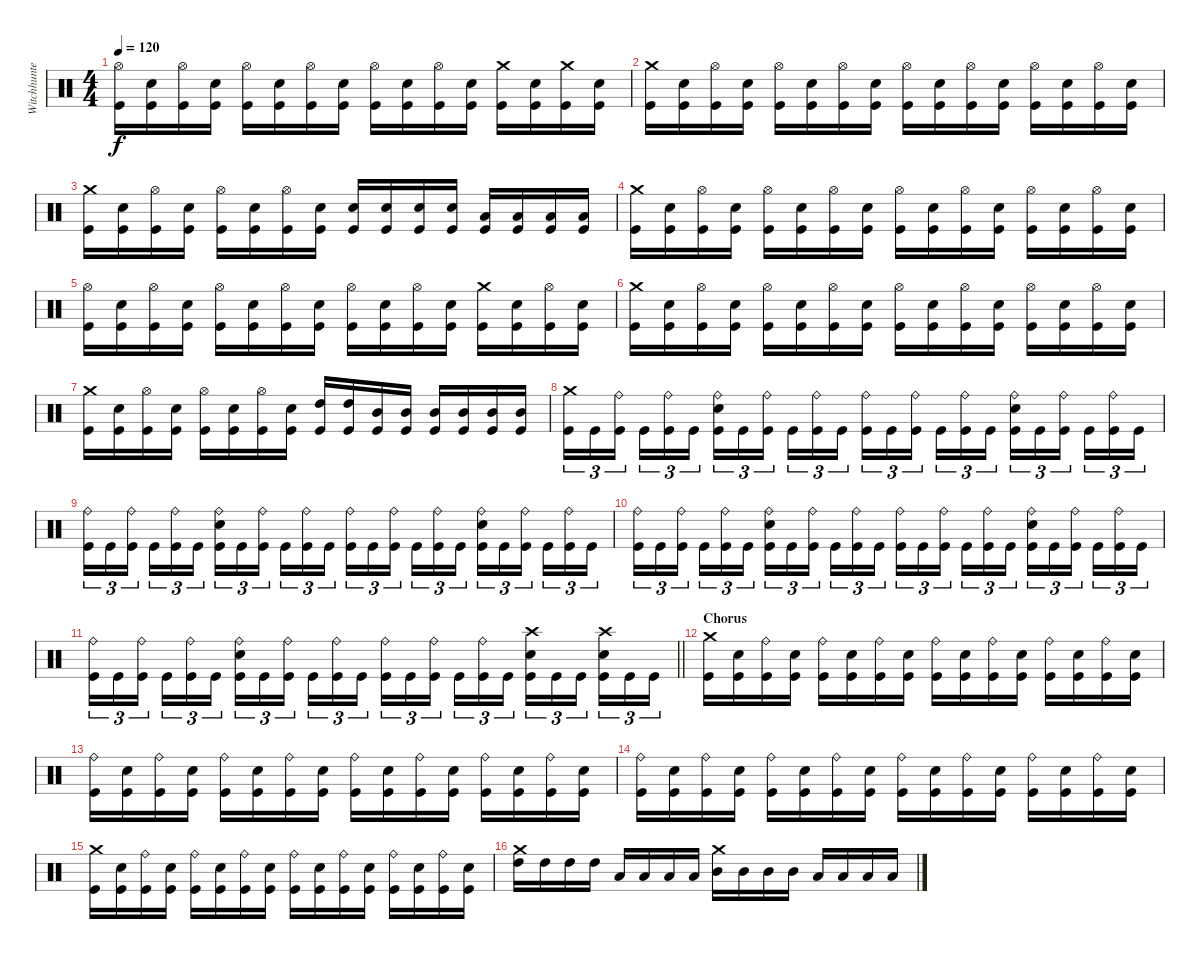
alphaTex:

\track ("Witchhunter" "Witchhunte") {instrument percussion}
\staff {score}
\articulation defaults
\ts (4 4)
\tempo 120
\clef neutral
\ks c
("Hi-Hat (open)" "Kick (hit)").16{dy f} ("Snare (hit) 2" "Kick (hit)").16 ("Hi-Hat (open)" "Kick (hit)").16 ("Snare (hit) 2" "Kick (hit)").16 ("Hi-Hat (open)" "Kick (hit)").16 ("Snare (hit) 2" "Kick (hit)").16 ("Hi-Hat (open)" "Kick (hit)").16 ("Snare (hit) 2" "Kick (hit)").16 ("Hi-Hat (open)" "Kick (hit)").16 ("Snare (hit) 2" "Kick (hit)").16 ("Hi-Hat (open)" "Kick (hit)").16 ("Snare (hit) 2" "Kick (hit)").16 ("Crash medium (hit)" "Kick (hit)").16 ("Snare (hit) 2" "Kick (hit)").16 ("Crash medium (hit)" "Kick (hit)").16 ("Snare (hit) 2" "Kick (hit)").16 |
("Crash medium (hit)" "Kick (hit)").16 ("Snare (hit) 2" "Kick (hit)").16 ("Hi-Hat (open)" "Kick (hit)").16 ("Snare (hit) 2" "Kick (hit)").16 ("Hi-Hat (open)" "Kick (hit)").16 ("Snare (hit) 2" "Kick (hit)").16 ("Hi-Hat (open)" "Kick (hit)").16 ("Snare (hit) 2" "Kick (hit)").16 ("Hi-Hat (open)" "Kick (hit)").16 ("Snare (hit) 2" "Kick (hit)").16 ("Hi-Hat (open)" "Kick (hit)").16 ("Snare (hit) 2" "Kick (hit)").16 ("Hi-Hat (open)" "Kick (hit)").16 ("Snare (hit) 2" "Kick (hit)").16 ("Hi-Hat (open)" "Kick (hit)").16 ("Snare (hit) 2" "Kick (hit)").16 |
("Crash medium (hit)" "Kick (hit)").16 ("Snare (hit) 2" "Kick (hit)").16 ("Hi-Hat (open)" "Kick (hit)").16 ("Snare (hit) 2" "Kick (hit)").16 ("Hi-Hat (open)" "Kick (hit)").16 ("Snare (hit) 2" "Kick (hit)").16 ("Hi-Hat (open)" "Kick (hit)").16 ("Snare (hit) 2" "Kick (hit)").16 ("Snare (hit) 2" "Kick (hit)").16 ("Snare (hit) 2" "Kick (hit)").16 ("Snare (hit) 2" "Kick (hit)").16 ("Snare (hit) 2" "Kick (hit)").16 ("Low Tom (hit)" "Kick (hit)").16 ("Low Tom (hit)" "Kick (hit)").16 ("Low Tom (hit)" "Kick (hit)").16 ("Low Tom (hit)" "Kick (hit)").16 |
("Crash medium (hit)" "Kick (hit)").16 ("Snare (hit) 2" "Kick (hit)").16 ("Hi-Hat (open)" "Kick (hit)").16 ("Snare (hit) 2" "Kick (hit)").16 ("Hi-Hat (open)" "Kick (hit)").16 ("Snare (hit) 2" "Kick (hit)").16 ("Hi-Hat (open)" "Kick (hit)").16 ("Snare (hit) 2" "Kick (hit)").16 ("Hi-Hat (open)" "Kick (hit)").16 ("Snare (hit) 2" "Kick (hit)").16 ("Hi-Hat (open)" "Kick (hit)").16 ("Snare (hit) 2" "Kick (hit)").16 ("Hi-Hat (open)" "Kick (hit)").16 ("Snare (hit) 2" "Kick (hit)").16 ("Hi-Hat (open)" "Kick (hit)").16 ("Snare (hit) 2" "Kick (hit)").16 |
("Hi-Hat (open)" "Kick (hit)").16 ("Snare (hit) 2" "Kick (hit)").16 ("Hi-Hat (open)" "Kick (hit)").16 ("Snare (hit) 2" "Kick (hit)").16 ("Hi-Hat (open)" "Kick (hit)").16 ("Snare (hit) 2" "Kick (hit)").16 ("Hi-Hat (open)" "Kick (hit)").16 ("Snare (hit) 2" "Kick (hit)").16 ("Hi-Hat (open)" "Kick (hit)").16 ("Snare (hit) 2" "Kick (hit)").16 ("Hi-Hat (open)" "Kick (hit)").16 ("Snare (hit) 2" "Kick (hit)").16 ("Crash medium (hit)" "Kick (hit)").16 ("Snare (hit) 2" "Kick (hit)").16 ("Hi-Hat (open)" "Kick (hit)").16 ("Snare (hit) 2" "Kick (hit)").16 |
("Crash medium (hit)" "Kick (hit)").16 ("Snare (hit) 2" "Kick (hit)").16 ("Hi-Hat (open)" "Kick (hit)").16 ("Snare (hit) 2" "Kick (hit)").16 ("Hi-Hat (open)" "Kick (hit)").16 ("Snare (hit) 2" "Kick (hit)").16 ("Hi-Hat (open)" "Kick (hit)").16 ("Snare (hit) 2" "Kick (hit)").16 ("Hi-Hat (open)" "Kick (hit)").16 ("Snare (hit) 2" "Kick (hit)").16 ("Hi-Hat (open)" "Kick (hit)").16 ("Snare (hit) 2" "Kick (hit)").16 ("Hi-Hat (open)" "Kick (hit)").16 ("Snare (hit) 2" "Kick (hit)").16 ("Hi-Hat (open)" "Kick (hit)").16 ("Snare (hit) 2" "Kick (hit)").16 |
("Crash medium (hit)" "Kick (hit)").16 ("Snare (hit) 2" "Kick (hit)").16 ("Hi-Hat (open)" "Kick (hit)").16 ("Snare (hit) 2" "Kick (hit)").16 ("Hi-Hat (open)" "Kick (hit)").16 ("Snare (hit) 2" "Kick (hit)").16 ("Hi-Hat (open)" "Kick (hit)").16 ("Snare (hit) 2" "Kick (hit)").16 ("High Tom (hit)" "Kick (hit)").16 ("High Tom (hit)" "Kick (hit)").16 ("Mid Tom (hit)" "Kick (hit)").16 ("Mid Tom (hit)" "Kick (hit)").16 ("Mid Tom (hit)" "Kick (hit)").16 ("Mid Tom (hit)" "Kick (hit)").16 ("Mid Tom (hit)" "Kick (hit)").16 ("Mid Tom (hit)" "Kick (hit)").16 |
("Crash medium (hit)" "Kick (hit)").16{tu (3 2)} "Kick (hit)".16{tu (3 2)} ("Ride (bell)" "Kick (hit)").16{tu (3 2) beam splitsecondary} "Kick (hit)".16{tu (3 2)} ("Ride (bell)" "Kick (hit)").16{tu (3 2)} "Kick (hit)".16{tu (3 2)} ("Ride (bell)" "Snare (hit) 2" "Kick (hit)").16{tu (3 2)} "Kick (hit)".16{tu (3 2)} ("Ride (bell)" "Kick (hit)").16{tu (3 2) beam splitsecondary} "Kick (hit)".16{tu (3 2)} ("Ride (bell)" "Kick (hit)").16{tu (3 2)} "Kick (hit)".16{tu (3 2)} ("Ride (bell)" "Kick (hit)").16{tu (3 2)} "Kick (hit)".16{tu (3 2)} ("Ride (bell)" "Kick (hit)").16{tu (3 2) beam splitsecondary} "Kick (hit)".16{tu (3 2)} ("Ride (bell)" "Kick (hit)").16{tu (3 2)} "Kick (hit)".16{tu (3 2)} ("Ride (bell)" "Snare (hit) 2" "Kick (hit)").16{tu (3 2)} "Kick (hit)".16{tu (3 2)} ("Ride (bell)" "Kick (hit)").16{tu (3 2) beam splitsecondary} "Kick (hit)".16{tu (3 2)} ("Ride (bell)" "Kick (hit)").16{tu (3 2)} "Kick (hit)".16{tu (3 2)} |
("Ride (bell)" "Kick (hit)").16{tu (3 2)} "Kick (hit)".16{tu (3 2)} ("Ride (bell)" "Kick (hit)").16{tu (3 2) beam splitsecondary} "Kick (hit)".16{tu (3 2)} ("Ride (bell)" "Kick (hit)").16{tu (3 2)} "Kick (hit)".16{tu (3 2)} ("Ride (bell)" "Snare (hit) 2" "Kick (hit)").16{tu (3 2)} "Kick (hit)".16{tu (3 2)} ("Ride (bell)" "Kick (hit)").16{tu (3 2) beam splitsecondary} "Kick (hit)".16{tu (3 2)} ("Ride (bell)" "Kick (hit)").16{tu (3 2)} "Kick (hit)".16{tu (3 2)} ("Ride (bell)" "Kick (hit)").16{tu (3 2)} "Kick (hit)".16{tu (3 2)} ("Ride (bell)" "Kick (hit)").16{tu (3 2) beam splitsecondary} "Kick (hit)".16{tu (3 2)} ("Ride (bell)" "Kick (hit)").16{tu (3 2)} "Kick (hit)".16{tu (3 2)} ("Ride (bell)" "Snare (hit) 2" "Kick (hit)").16{tu (3 2)} "Kick (hit)".16{tu (3 2)} ("Ride (bell)" "Kick (hit)").16{tu (3 2) beam splitsecondary} "Kick (hit)".16{tu (3 2)} ("Ride (bell)" "Kick (hit)").16{tu (3 2)} "Kick (hit)".16{tu (3 2)} |
("Ride (bell)" "Kick (hit)").16{tu (3 2)} "Kick (hit)".16{tu (3 2)} ("Ride (bell)" "Kick (hit)").16{tu (3 2) beam splitsecondary} "Kick (hit)".16{tu (3 2)} ("Ride (bell)" "Kick (hit)").16{tu (3 2)} "Kick (hit)".16{tu (3 2)} ("Ride (bell)" "Snare (hit) 2" "Kick (hit)").16{tu (3 2)} "Kick (hit)".16{tu (3 2)} ("Ride (bell)" "Kick (hit)").16{tu (3 2) beam splitsecondary} "Kick (hit)".16{tu (3 2)} ("Ride (bell)" "Kick (hit)").16{tu (3 2)} "Kick (hit)".16{tu (3 2)} ("Ride (bell)" "Kick (hit)").16{tu (3 2)} "Kick (hit)".16{tu (3 2)} ("Ride (bell)" "Kick (hit)").16{tu (3 2) beam splitsecondary} "Kick (hit)".16{tu (3 2)} ("Ride (bell)" "Kick (hit)").16{tu (3 2)} "Kick (hit)".16{tu (3 2)} ("Ride (bell)" "Snare (hit) 2" "Kick (hit)").16{tu (3 2)} "Kick (hit)".16{tu (3 2)} ("Ride (bell)" "Kick (hit)").16{tu (3 2) beam splitsecondary} "Kick (hit)".16{tu (3 2)} ("Ride (bell)" "Kick (hit)").16{tu (3 2)} "Kick (hit)".16{tu (3 2)} |
\barLineRight lightlight
("Ride (bell)" "Kick (hit)").16{tu (3 2)} "Kick (hit)".16{tu (3 2)} ("Ride (bell)" "Kick (hit)").16{tu (3 2) beam splitsecondary} "Kick (hit)".16{tu (3 2)} ("Ride (bell)" "Kick (hit)").16{tu (3 2)} "Kick (hit)".16{tu (3 2)} ("Ride (bell)" "Snare (hit) 2" "Kick (hit)").16{tu (3 2)} "Kick (hit)".16{tu (3 2)} ("Ride (bell)" "Kick (hit)").16{tu (3 2) beam splitsecondary} "Kick (hit)".16{tu (3 2)} ("Ride (bell)" "Kick (hit)").16{tu (3 2)} "Kick (hit)".16{tu (3 2)} ("Ride (bell)" "Kick (hit)").16{tu (3 2)} "Kick (hit)".16{tu (3 2)} ("Ride (bell)" "Kick (hit)").16{tu (3 2) beam splitsecondary} "Kick (hit)".16{tu (3 2)} ("Ride (bell)" "Kick (hit)").16{tu (3 2)} "Kick (hit)".16{tu (3 2)} ("Crash high (hit)" "Snare (hit) 2" "Kick (hit)").16{tu (3 2)} "Kick (hit)".16{tu (3 2)} "Kick (hit)".16{tu (3 2) beam splitsecondary} ("Crash high (hit)" "Snare (hit) 2" "Kick (hit)").16{tu (3 2)} "Kick (hit)".16{tu (3 2)} "Kick (hit)".16{tu (3 2)} |
\section ("" "Chorus")
("Crash medium (hit)" "Kick (hit)").16 ("Snare (hit) 2" "Kick (hit)").16 ("Ride (bell)" "Kick (hit)").16 ("Snare (hit) 2" "Kick (hit)").16 ("Ride (bell)" "Kick (hit)").16 ("Snare (hit) 2" "Kick (hit)").16 ("Ride (bell)" "Kick (hit)").16 ("Snare (hit) 2" "Kick (hit)").16 ("Ride (bell)" "Kick (hit)").16 ("Snare (hit) 2" "Kick (hit)").16 ("Ride (bell)" "Kick (hit)").16 ("Snare (hit) 2" "Kick (hit)").16 ("Ride (bell)" "Kick (hit)").16 ("Snare (hit) 2" "Kick (hit)").16 ("Ride (bell)" "Kick (hit)").16 ("Snare (hit) 2" "Kick (hit)").16 |
("Ride (bell)" "Kick (hit)").16 ("Snare (hit) 2" "Kick (hit)").16 ("Ride (bell)" "Kick (hit)").16 ("Snare (hit) 2" "Kick (hit)").16 ("Ride (bell)" "Kick (hit)").16 ("Snare (hit) 2" "Kick (hit)").16 ("Ride (bell)" "Kick (hit)").16 ("Snare (hit) 2" "Kick (hit)").16 ("Ride (bell)" "Kick (hit)").16 ("Snare (hit) 2" "Kick (hit)").16 ("Ride (bell)" "Kick (hit)").16 ("Snare (hit) 2" "Kick (hit)").16 ("Ride (bell)" "Kick (hit)").16 ("Snare (hit) 2" "Kick (hit)").16 ("Ride (bell)" "Kick (hit)").16 ("Snare (hit) 2" "Kick (hit)").16 |
("Ride (bell)" "Kick (hit)").16 ("Snare (hit) 2" "Kick (hit)").16 ("Ride (bell)" "Kick (hit)").16 ("Snare (hit) 2" "Kick (hit)").16 ("Ride (bell)" "Kick (hit)").16 ("Snare (hit) 2" "Kick (hit)").16 ("Ride (bell)" "Kick (hit)").16 ("Snare (hit) 2" "Kick (hit)").16 ("Ride (bell)" "Kick (hit)").16 ("Snare (hit) 2" "Kick (hit)").16 ("Ride (bell)" "Kick (hit)").16 ("Snare (hit) 2" "Kick (hit)").16 ("Ride (bell)" "Kick (hit)").16 ("Snare (hit) 2" "Kick (hit)").16 ("Ride (bell)" "Kick (hit)").16 ("Snare (hit) 2" "Kick (hit)").16 |
("Crash medium (hit)" "Kick (hit)").16 ("Snare (hit) 2" "Kick (hit)").16 ("Ride (bell)" "Kick (hit)").16 ("Snare (hit) 2" "Kick (hit)").16 ("Ride (bell)" "Kick (hit)").16 ("Snare (hit) 2" "Kick (hit)").16 ("Ride (bell)" "Kick (hit)").16 ("Snare (hit) 2" "Kick (hit)").16 ("Ride (bell)" "Kick (hit)").16 ("Snare (hit) 2" "Kick (hit)").16 ("Ride (bell)" "Kick (hit)").16 ("Snare (hit) 2" "Kick (hit)").16 ("Ride (bell)" "Kick (hit)").16 ("Snare (hit) 2" "Kick (hit)").16 ("Ride (bell)" "Kick (hit)").16 ("Snare (hit) 2" "Kick (hit)").16 |
("Crash medium (hit)" "High Tom (hit)").16 "High Tom (hit)".16 "High Tom (hit)".16 "High Tom (hit)".16 "Low Tom (hit)".16 "Low Tom (hit)".16 "Low Tom (hit)".16 "Low Tom (hit)".16 ("Crash medium (hit)" "Mid Tom (hit)").16 "Mid Tom (hit)".16 "Mid Tom (hit)".16 "Mid Tom (hit)".16 "Low Tom (hit)".16 "Low Tom (hit)".16 "Low Tom (hit)".16 "Low Tom (hit)".16
